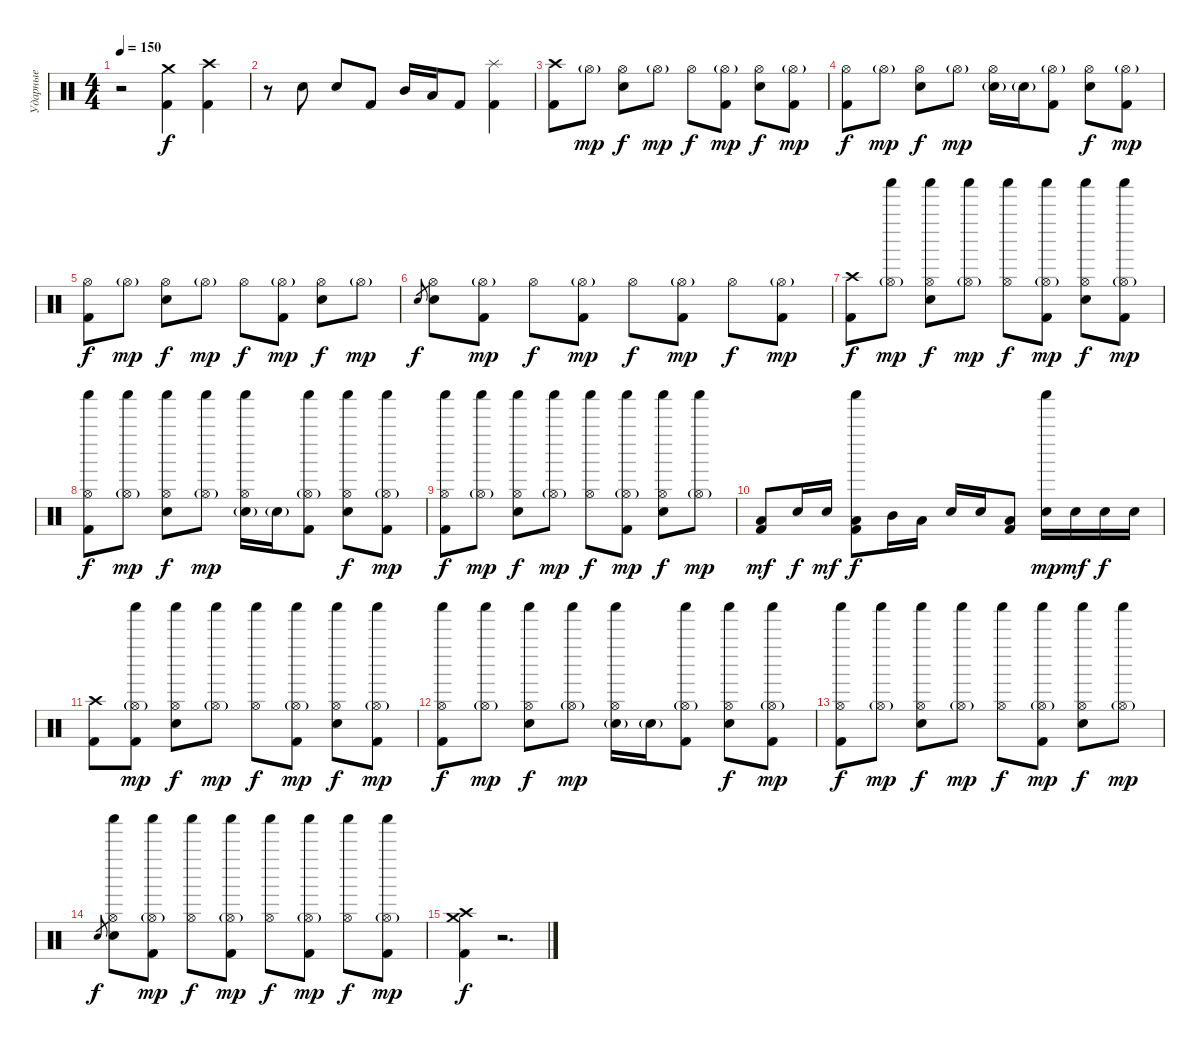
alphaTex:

\track ("Ударные" "Ударные") {instrument percussion}
\staff {score}
\articulation defaults
\ts (4 4)
\tempo 150
\clef neutral
\ks c
r.2{dy f} ("Crash medium (hit)" "Kick (hit) 2").4 ("Crash high (hit)" "Kick (hit) 2").4 |
r.8 "Snare (hit) 2".8 "Snare (hit) 2".8 "Kick (hit) 2".8 "Mid Tom (hit)".16 "Low Tom (hit)".16 "Kick (hit) 2".8 ("Splash (hit)" "Kick (hit) 2").4 |
("Crash high (hit)" "Kick (hit) 2").8 "Hi-Hat (open)"{g}.8{dy mp} ("Hi-Hat (open)" "Snare (hit) 2").8{dy f} "Hi-Hat (open)"{g}.8{dy mp} "Hi-Hat (open)".8{dy f} ("Hi-Hat (open)"{g} "Kick (hit) 2").8{dy mp} ("Hi-Hat (open)" "Snare (hit) 2").8{dy f} ("Hi-Hat (open)"{g} "Kick (hit) 2").8{dy mp} |
("Hi-Hat (open)" "Kick (hit) 2").8{dy f} "Hi-Hat (open)"{g}.8{dy mp} ("Hi-Hat (open)" "Snare (hit) 2").8{dy f} "Hi-Hat (open)"{g}.8{dy mp} ("Hi-Hat (open)" "Snare (hit) 2"{g}).16 "Snare (hit) 2"{g}.16 ("Hi-Hat (open)"{g} "Kick (hit) 2").8 ("Hi-Hat (open)" "Snare (hit) 2").8{dy f} ("Hi-Hat (open)"{g} "Kick (hit) 2").8{dy mp} |
("Hi-Hat (open)" "Kick (hit) 2").8{dy f} "Hi-Hat (open)"{g}.8{dy mp} ("Hi-Hat (open)" "Snare (hit) 2").8{dy f} "Hi-Hat (open)"{g}.8{dy mp} "Hi-Hat (open)".8{dy f} ("Hi-Hat (open)"{g} "Kick (hit) 2").8{dy mp} ("Hi-Hat (open)" "Snare (hit) 2").8{dy f} "Hi-Hat (open)"{g}.8{dy mp} |
"Snare (hit) 2".8{gr dy f} ("Hi-Hat (open)" "Snare (hit) 2").8 ("Hi-Hat (open)"{g} "Kick (hit) 2").8{dy mp} "Hi-Hat (open)".8{dy f} ("Hi-Hat (open)"{g} "Kick (hit) 2").8{dy mp} "Hi-Hat (open)".8{dy f} ("Hi-Hat (open)"{g} "Kick (hit) 2").8{dy mp} "Hi-Hat (open)".8{dy f} ("Hi-Hat (open)"{g} "Kick (hit) 2").8{dy mp} |
("Crash high (hit)" "Kick (hit) 2").8{dy f} ("Shaker (hit)" "Hi-Hat (open)"{g}).8{dy mp} ("Shaker (hit)" "Hi-Hat (open)" "Snare (hit) 2").8{dy f} ("Shaker (hit)" "Hi-Hat (open)"{g}).8{dy mp} ("Shaker (hit)" "Hi-Hat (open)").8{dy f} ("Shaker (hit)" "Hi-Hat (open)"{g} "Kick (hit) 2").8{dy mp} ("Shaker (hit)" "Hi-Hat (open)" "Snare (hit) 2").8{dy f} ("Shaker (hit)" "Hi-Hat (open)"{g} "Kick (hit) 2").8{dy mp} |
("Shaker (hit)" "Hi-Hat (open)" "Kick (hit) 2").8{dy f} ("Shaker (hit)" "Hi-Hat (open)"{g}).8{dy mp} ("Shaker (hit)" "Hi-Hat (open)" "Snare (hit) 2").8{dy f} ("Shaker (hit)" "Hi-Hat (open)"{g}).8{dy mp} ("Shaker (hit)" "Hi-Hat (open)" "Snare (hit) 2"{g}).16 "Snare (hit) 2"{g}.16 ("Shaker (hit)" "Hi-Hat (open)"{g} "Kick (hit) 2").8 ("Shaker (hit)" "Hi-Hat (open)" "Snare (hit) 2").8{dy f} ("Shaker (hit)" "Hi-Hat (open)"{g} "Kick (hit) 2").8{dy mp} |
("Shaker (hit)" "Hi-Hat (open)" "Kick (hit) 2").8{dy f} ("Shaker (hit)" "Hi-Hat (open)"{g}).8{dy mp} ("Shaker (hit)" "Hi-Hat (open)" "Snare (hit) 2").8{dy f} ("Shaker (hit)" "Hi-Hat (open)"{g}).8{dy mp} ("Shaker (hit)" "Hi-Hat (open)").8{dy f} ("Shaker (hit)" "Hi-Hat (open)"{g} "Kick (hit) 2").8{dy mp} ("Shaker (hit)" "Hi-Hat (open)" "Snare (hit) 2").8{dy f} ("Shaker (hit)" "Hi-Hat (open)"{g}).8{dy mp} |
("Low Tom (hit)" "Kick (hit) 2").8{dy mf} "Snare (hit) 2".16{dy f} "Snare (hit) 2".16{dy mf} ("Shaker (hit)" "Low Tom (hit)" "Kick (hit) 2").8{dy f} "Mid Tom (hit)".16 "Low Tom (hit)".16 "Snare (hit) 2".16 "Snare (hit) 2".16 ("Low Tom (hit)" "Kick (hit) 2").8 ("Shaker (hit)" "Snare (hit) 2").16{dy mp} "Snare (hit) 2".16{dy mf} "Snare (hit) 2".16{dy f} "Snare (hit) 2".16 |
("Crash high (hit)" "Kick (hit) 2").8 ("Shaker (hit)" "Hi-Hat (open)"{g} "Kick (hit) 2").8{dy mp} ("Shaker (hit)" "Hi-Hat (open)" "Snare (hit) 2").8{dy f} ("Shaker (hit)" "Hi-Hat (open)"{g}).8{dy mp} ("Shaker (hit)" "Hi-Hat (open)").8{dy f} ("Shaker (hit)" "Hi-Hat (open)"{g} "Kick (hit) 2").8{dy mp} ("Shaker (hit)" "Hi-Hat (open)" "Snare (hit) 2").8{dy f} ("Shaker (hit)" "Hi-Hat (open)"{g} "Kick (hit) 2").8{dy mp} |
("Shaker (hit)" "Hi-Hat (open)" "Kick (hit) 2").8{dy f} ("Shaker (hit)" "Hi-Hat (open)"{g}).8{dy mp} ("Shaker (hit)" "Hi-Hat (open)" "Snare (hit) 2").8{dy f} ("Shaker (hit)" "Hi-Hat (open)"{g}).8{dy mp} ("Shaker (hit)" "Hi-Hat (open)" "Snare (hit) 2"{g}).16 "Snare (hit) 2"{g}.16 ("Shaker (hit)" "Hi-Hat (open)"{g} "Kick (hit) 2").8 ("Shaker (hit)" "Hi-Hat (open)" "Snare (hit) 2").8{dy f} ("Shaker (hit)" "Hi-Hat (open)"{g} "Kick (hit) 2").8{dy mp} |
("Shaker (hit)" "Hi-Hat (open)" "Kick (hit) 2").8{dy f} ("Shaker (hit)" "Hi-Hat (open)"{g}).8{dy mp} ("Shaker (hit)" "Hi-Hat (open)" "Snare (hit) 2").8{dy f} ("Shaker (hit)" "Hi-Hat (open)"{g}).8{dy mp} ("Shaker (hit)" "Hi-Hat (open)").8{dy f} ("Shaker (hit)" "Hi-Hat (open)"{g} "Kick (hit) 2").8{dy mp} ("Shaker (hit)" "Hi-Hat (open)" "Snare (hit) 2").8{dy f} ("Shaker (hit)" "Hi-Hat (open)"{g}).8{dy mp} |
"Snare (hit) 2".8{gr dy f} ("Shaker (hit)" "Hi-Hat (open)" "Snare (hit) 2").8 ("Shaker (hit)" "Hi-Hat (open)"{g} "Kick (hit) 2").8{dy mp} ("Shaker (hit)" "Hi-Hat (open)").8{dy f} ("Shaker (hit)" "Hi-Hat (open)"{g} "Kick (hit) 2").8{dy mp} ("Shaker (hit)" "Hi-Hat (open)").8{dy f} ("Shaker (hit)" "Hi-Hat (open)"{g} "Kick (hit) 2").8{dy mp} ("Shaker (hit)" "Hi-Hat (open)").8{dy f} ("Shaker (hit)" "Hi-Hat (open)"{g} "Kick (hit) 2").8{dy mp} |
("Crash medium (hit)" "Crash high (hit)" "Kick (hit) 2").4{dy f} r.2{d}
